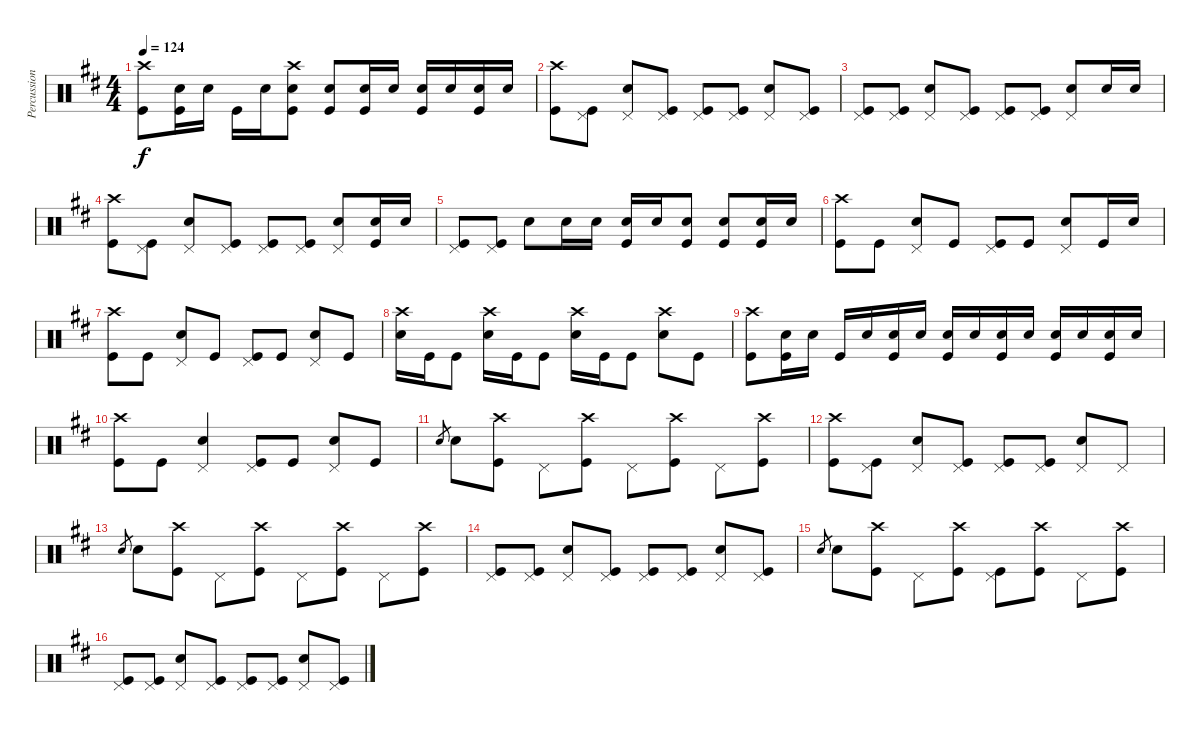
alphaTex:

\track ("Percussion" "Percussion") {instrument percussion}
\staff {score}
\articulation defaults
\ts (4 4)
\tempo 124
\clef neutral
\ks d
("Crash high (hit)" "Kick (hit)").8{dy f} ("Snare (hit) 2" "Kick (hit)").16 "Snare (hit) 2".16 "Kick (hit)".16 "Snare (hit) 2".16 ("Crash high (hit)" "Snare (hit) 2" "Kick (hit)").8 ("Snare (hit) 2" "Kick (hit)").8 ("Snare (hit) 2" "Kick (hit)").16 "Snare (hit) 2".16 ("Snare (hit) 2" "Kick (hit)").16 "Snare (hit) 2".16 ("Snare (hit) 2" "Kick (hit)").16 "Snare (hit) 2".16 |
("Crash high (hit)" "Kick (hit)").8 ("Pedal Hi-Hat (hit)" "Kick (hit)").8 ("Pedal Hi-Hat (hit)" "Snare (hit) 2").8 ("Pedal Hi-Hat (hit)" "Kick (hit)").8 ("Pedal Hi-Hat (hit)" "Kick (hit)").8 ("Pedal Hi-Hat (hit)" "Kick (hit)").8 ("Pedal Hi-Hat (hit)" "Snare (hit) 2").8 ("Pedal Hi-Hat (hit)" "Kick (hit)").8 |
("Pedal Hi-Hat (hit)" "Kick (hit)").8 ("Pedal Hi-Hat (hit)" "Kick (hit)").8 ("Pedal Hi-Hat (hit)" "Snare (hit) 2").8 ("Pedal Hi-Hat (hit)" "Kick (hit)").8 ("Pedal Hi-Hat (hit)" "Kick (hit)").8 ("Pedal Hi-Hat (hit)" "Kick (hit)").8 ("Pedal Hi-Hat (hit)" "Snare (hit) 2").8 "Snare (hit) 2".16 "Snare (hit) 2".16 |
("Crash high (hit)" "Kick (hit)").8 ("Pedal Hi-Hat (hit)" "Kick (hit)").8 ("Pedal Hi-Hat (hit)" "Snare (hit) 2").8 ("Pedal Hi-Hat (hit)" "Kick (hit)").8 ("Pedal Hi-Hat (hit)" "Kick (hit)").8 ("Pedal Hi-Hat (hit)" "Kick (hit)").8 ("Pedal Hi-Hat (hit)" "Snare (hit) 2").8 ("Snare (hit) 2" "Kick (hit)").16 "Snare (hit) 2".16 |
("Pedal Hi-Hat (hit)" "Kick (hit)").8 ("Pedal Hi-Hat (hit)" "Kick (hit)").8 "Snare (hit) 2".8 "Snare (hit) 2".16 "Snare (hit) 2".16 ("Snare (hit) 2" "Kick (hit)").16 "Snare (hit) 2".16 ("Snare (hit) 2" "Kick (hit)").8 ("Snare (hit) 2" "Kick (hit)").8 ("Snare (hit) 2" "Kick (hit)").16 "Snare (hit) 2".16 |
("Crash high (hit)" "Kick (hit)").8 "Kick (hit)".8 ("Pedal Hi-Hat (hit)" "Snare (hit) 2").8 "Kick (hit)".8 ("Pedal Hi-Hat (hit)" "Kick (hit)").8 "Kick (hit)".8 ("Pedal Hi-Hat (hit)" "Snare (hit) 2").8 "Kick (hit)".16 "Snare (hit) 2".16 |
("Crash high (hit)" "Kick (hit)").8 "Kick (hit)".8 ("Pedal Hi-Hat (hit)" "Snare (hit) 2").8 "Kick (hit)".8 ("Pedal Hi-Hat (hit)" "Kick (hit)").8 "Kick (hit)".8 ("Pedal Hi-Hat (hit)" "Snare (hit) 2").8 "Kick (hit)".8 |
("Crash high (hit)" "Snare (hit) 2").16 "Kick (hit)".16 "Kick (hit)".8 ("Crash high (hit)" "Snare (hit) 2").16 "Kick (hit)".16 "Kick (hit)".8 ("Crash high (hit)" "Snare (hit) 2").16 "Kick (hit)".16 "Kick (hit)".8 ("Crash high (hit)" "Snare (hit) 2").8 "Kick (hit)".8 |
("Crash high (hit)" "Kick (hit)").8 ("Snare (hit) 2" "Kick (hit)").16 "Snare (hit) 2".16 "Kick (hit)".16 "Snare (hit) 2".16 ("Snare (hit) 2" "Kick (hit)").16 "Snare (hit) 2".16 ("Snare (hit) 2" "Kick (hit)").16 "Snare (hit) 2".16 ("Snare (hit) 2" "Kick (hit)").16 "Snare (hit) 2".16 ("Snare (hit) 2" "Kick (hit)").16 "Snare (hit) 2".16 ("Snare (hit) 2" "Kick (hit)").16 "Snare (hit) 2".16 |
("Crash high (hit)" "Kick (hit)").8 "Kick (hit)".8 ("Pedal Hi-Hat (hit)" "Snare (hit) 2").4 ("Pedal Hi-Hat (hit)" "Kick (hit)").8 "Kick (hit)".8 ("Pedal Hi-Hat (hit)" "Snare (hit) 2").8 "Kick (hit)".8 |
"Snare (hit) 2".8{gr} "Snare (hit) 2".8 ("Crash high (hit)" "Kick (hit)").8 "Pedal Hi-Hat (hit)".8 ("Crash high (hit)" "Kick (hit)").8 "Pedal Hi-Hat (hit)".8 ("Crash high (hit)" "Kick (hit)").8 "Pedal Hi-Hat (hit)".8 ("Crash high (hit)" "Kick (hit)").8 |
("Crash high (hit)" "Kick (hit)").8 ("Pedal Hi-Hat (hit)" "Kick (hit)").8 ("Pedal Hi-Hat (hit)" "Snare (hit) 2").8 ("Pedal Hi-Hat (hit)" "Kick (hit)").8 ("Pedal Hi-Hat (hit)" "Kick (hit)").8 ("Pedal Hi-Hat (hit)" "Kick (hit)").8 ("Pedal Hi-Hat (hit)" "Snare (hit) 2").8 "Pedal Hi-Hat (hit)".8 |
"Snare (hit) 2".8{gr} "Snare (hit) 2".8 ("Crash high (hit)" "Kick (hit)").8 "Pedal Hi-Hat (hit)".8 ("Crash high (hit)" "Kick (hit)").8 "Pedal Hi-Hat (hit)".8 ("Crash high (hit)" "Kick (hit)").8 "Pedal Hi-Hat (hit)".8 ("Crash high (hit)" "Kick (hit)").8 |
("Pedal Hi-Hat (hit)" "Kick (hit)").8 ("Pedal Hi-Hat (hit)" "Kick (hit)").8 ("Pedal Hi-Hat (hit)" "Snare (hit) 2").8 ("Pedal Hi-Hat (hit)" "Kick (hit)").8 ("Pedal Hi-Hat (hit)" "Kick (hit)").8 ("Pedal Hi-Hat (hit)" "Kick (hit)").8 ("Pedal Hi-Hat (hit)" "Snare (hit) 2").8 ("Pedal Hi-Hat (hit)" "Kick (hit)").8 |
"Snare (hit) 2".8{gr} "Snare (hit) 2".8 ("Crash high (hit)" "Kick (hit)").8 "Pedal Hi-Hat (hit)".8 ("Crash high (hit)" "Kick (hit)").8 ("Pedal Hi-Hat (hit)" "Kick (hit)").8 ("Crash high (hit)" "Kick (hit)").8 "Pedal Hi-Hat (hit)".8 ("Crash high (hit)" "Kick (hit)").8 |
("Pedal Hi-Hat (hit)" "Kick (hit)").8 ("Pedal Hi-Hat (hit)" "Kick (hit)").8 ("Pedal Hi-Hat (hit)" "Snare (hit) 2").8 ("Pedal Hi-Hat (hit)" "Kick (hit)").8 ("Pedal Hi-Hat (hit)" "Kick (hit)").8 ("Pedal Hi-Hat (hit)" "Kick (hit)").8 ("Pedal Hi-Hat (hit)" "Snare (hit) 2").8 ("Pedal Hi-Hat (hit)" "Kick (hit)").8
